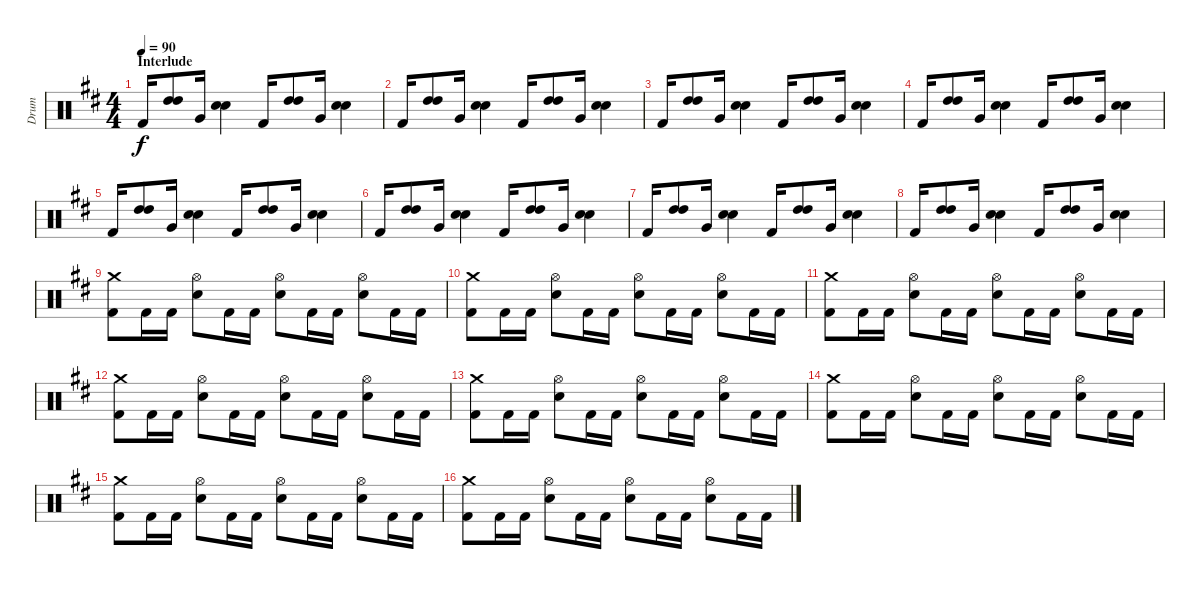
\track ("Drum" "Drum") {instrument percussion}
\staff {score}
\articulation defaults
\ts (4 4)
\section ("" "Interlude")
\tempo 90
\clef neutral
\ks d "Kick (hit) 2".16{dy f}
("High Tom (hit)" "High Tom (hit)").8{bd 480} "Very Low Tom (hit)".16 ("Snare (hit) 2" "Snare (hit) 2").4{bd 120} "Kick (hit) 2".16 ("High Tom (hit)" "High Tom (hit)").8{bd 480} "Very Low Tom (hit)".16 ("Snare (hit) 2" "Snare (hit) 2").4{bd 240} |
"Kick (hit) 2".16 ("High Tom (hit)" "High Tom (hit)").8{bd 480} "Very Low Tom (hit)".16 ("Snare (hit) 2" "Snare (hit) 2").4{bd 120} "Kick (hit) 2".16 ("High Tom (hit)" "High Tom (hit)").8{bd 480} "Very Low Tom (hit)".16 ("Snare (hit) 2" "Snare (hit) 2").4{bd 240} |
"Kick (hit) 2".16 ("High Tom (hit)" "High Tom (hit)").8{bd 480} "Very Low Tom (hit)".16 ("Snare (hit) 2" "Snare (hit) 2").4{bd 120} "Kick (hit) 2".16 ("High Tom (hit)" "High Tom (hit)").8{bd 480} "Very Low Tom (hit)".16 ("Snare (hit) 2" "Snare (hit) 2").4{bd 240} |
"Kick (hit) 2".16 ("High Tom (hit)" "High Tom (hit)").8{bd 480} "Very Low Tom (hit)".16 ("Snare (hit) 2" "Snare (hit) 2").4{bd 120} "Kick (hit) 2".16 ("High Tom (hit)" "High Tom (hit)").8{bd 480} "Very Low Tom (hit)".16 ("Snare (hit) 2" "Snare (hit) 2").4{bd 120} |
"Kick (hit) 2".16 ("High Tom (hit)" "High Tom (hit)").8{bd 480} "Very Low Tom (hit)".16 ("Snare (hit) 2" "Snare (hit) 2").4{bd 120} "Kick (hit) 2".16 ("High Tom (hit)" "High Tom (hit)").8{bd 480} "Very Low Tom (hit)".16 ("Snare (hit) 2" "Snare (hit) 2").4{bd 240} |
"Kick (hit) 2".16 ("High Tom (hit)" "High Tom (hit)").8{bd 480} "Very Low Tom (hit)".16 ("Snare (hit) 2" "Snare (hit) 2").4{bd 120} "Kick (hit) 2".16 ("High Tom (hit)" "High Tom (hit)").8{bd 480} "Very Low Tom (hit)".16 ("Snare (hit) 2" "Snare (hit) 2").4{bd 240} |
"Kick (hit) 2".16 ("High Tom (hit)" "High Tom (hit)").8{bd 480} "Very Low Tom (hit)".16 ("Snare (hit) 2" "Snare (hit) 2").4{bd 120} "Kick (hit) 2".16 ("High Tom (hit)" "High Tom (hit)").8{bd 480} "Very Low Tom (hit)".16 ("Snare (hit) 2" "Snare (hit) 2").4{bd 240} |
"Kick (hit) 2".16 ("High Tom (hit)" "High Tom (hit)").8{bd 480} "Very Low Tom (hit)".16 ("Snare (hit) 2" "Snare (hit) 2").4{bd 120} "Kick (hit) 2".16 ("High Tom (hit)" "High Tom (hit)").8{bd 480} "Very Low Tom (hit)".16 ("Snare (hit) 2" "Snare (hit) 2").4{bd 120} |
("Kick (hit) 2" "Crash medium (hit)").8 "Kick (hit) 2".16 "Kick (hit) 2".16 ("Snare (hit) 2" "Hi-Hat (open)").8 "Kick (hit) 2".16 "Kick (hit) 2".16 ("Snare (hit) 2" "Hi-Hat (open)").8 "Kick (hit) 2".16 "Kick (hit) 2".16 ("Snare (hit) 2" "Hi-Hat (open)").8 "Kick (hit) 2".16 "Kick (hit) 2".16 |
("Kick (hit) 2" "Crash medium (hit)").8 "Kick (hit) 2".16 "Kick (hit) 2".16 ("Snare (hit) 2" "Hi-Hat (open)").8 "Kick (hit) 2".16 "Kick (hit) 2".16 ("Snare (hit) 2" "Hi-Hat (open)").8 "Kick (hit) 2".16 "Kick (hit) 2".16 ("Snare (hit) 2" "Hi-Hat (open)").8 "Kick (hit) 2".16 "Kick (hit) 2".16 |
("Kick (hit) 2" "Crash medium (hit)").8 "Kick (hit) 2".16 "Kick (hit) 2".16 ("Snare (hit) 2" "Hi-Hat (open)").8 "Kick (hit) 2".16 "Kick (hit) 2".16 ("Snare (hit) 2" "Hi-Hat (open)").8 "Kick (hit) 2".16 "Kick (hit) 2".16 ("Snare (hit) 2" "Hi-Hat (open)").8 "Kick (hit) 2".16 "Kick (hit) 2".16 |
("Kick (hit) 2" "Crash medium (hit)").8 "Kick (hit) 2".16 "Kick (hit) 2".16 ("Snare (hit) 2" "Hi-Hat (open)").8 "Kick (hit) 2".16 "Kick (hit) 2".16 ("Snare (hit) 2" "Hi-Hat (open)").8 "Kick (hit) 2".16 "Kick (hit) 2".16 ("Snare (hit) 2" "Hi-Hat (open)").8 "Kick (hit) 2".16 "Kick (hit) 2".16 |
("Kick (hit) 2" "Crash medium (hit)").8 "Kick (hit) 2".16 "Kick (hit) 2".16 ("Snare (hit) 2" "Hi-Hat (open)").8 "Kick (hit) 2".16 "Kick (hit) 2".16 ("Snare (hit) 2" "Hi-Hat (open)").8 "Kick (hit) 2".16 "Kick (hit) 2".16 ("Snare (hit) 2" "Hi-Hat (open)").8 "Kick (hit) 2".16 "Kick (hit) 2".16 |
("Kick (hit) 2" "Crash medium (hit)").8 "Kick (hit) 2".16 "Kick (hit) 2".16 ("Snare (hit) 2" "Hi-Hat (open)").8 "Kick (hit) 2".16 "Kick (hit) 2".16 ("Snare (hit) 2" "Hi-Hat (open)").8 "Kick (hit) 2".16 "Kick (hit) 2".16 ("Snare (hit) 2" "Hi-Hat (open)").8 "Kick (hit) 2".16 "Kick (hit) 2".16 |
("Kick (hit) 2" "Crash medium (hit)").8 "Kick (hit) 2".16 "Kick (hit) 2".16 ("Snare (hit) 2" "Hi-Hat (open)").8 "Kick (hit) 2".16 "Kick (hit) 2".16 ("Snare (hit) 2" "Hi-Hat (open)").8 "Kick (hit) 2".16 "Kick (hit) 2".16 ("Snare (hit) 2" "Hi-Hat (open)").8 "Kick (hit) 2".16 "Kick (hit) 2".16 |
("Kick (hit) 2" "Crash medium (hit)").8 "Kick (hit) 2".16 "Kick (hit) 2".16 ("Snare (hit) 2" "Hi-Hat (open)").8 "Kick (hit) 2".16 "Kick (hit) 2".16 ("Snare (hit) 2" "Hi-Hat (open)").8 "Kick (hit) 2".16 "Kick (hit) 2".16 ("Snare (hit) 2" "Hi-Hat (open)").8 "Kick (hit) 2".16 "Kick (hit) 2".16
